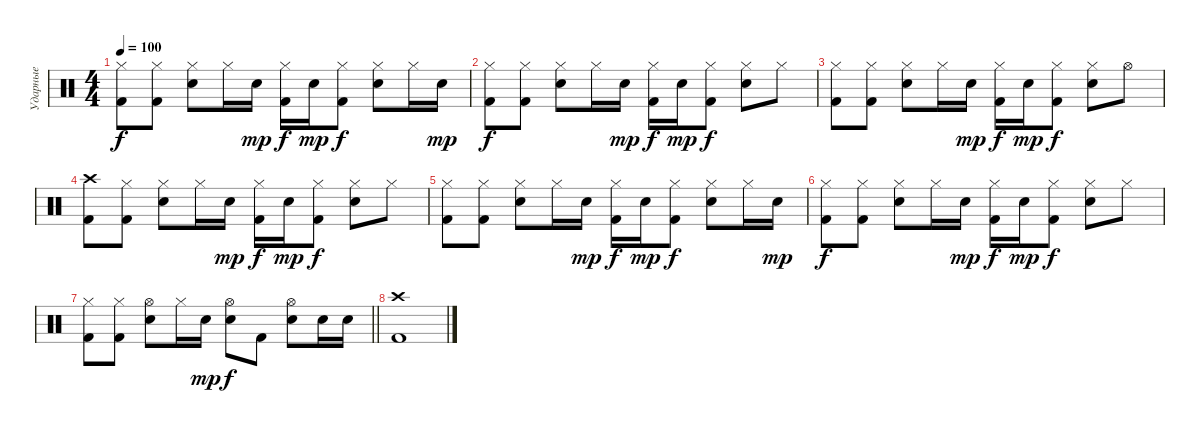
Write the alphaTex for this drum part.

\track ("Ударные" "Ударные") {instrument percussion}
\staff {score}
\articulation defaults
\ts (4 4)
\tempo 100
\clef neutral
\ks c
("Hi-Hat (closed)" "Kick (hit) 2").8{dy f} ("Hi-Hat (closed)" "Kick (hit) 2").8 ("Hi-Hat (closed)" "Electric Snare (hit)").8 "Hi-Hat (closed)".16 "Electric Snare (hit)".16{dy mp} ("Hi-Hat (closed)" "Kick (hit) 2").16{dy f} "Electric Snare (hit)".16{dy mp} ("Hi-Hat (closed)" "Kick (hit) 2").8{dy f} ("Hi-Hat (closed)" "Electric Snare (hit)").8 "Hi-Hat (closed)".16 "Electric Snare (hit)".16{dy mp} |
("Hi-Hat (closed)" "Kick (hit) 2").8{dy f} ("Hi-Hat (closed)" "Kick (hit) 2").8 ("Hi-Hat (closed)" "Electric Snare (hit)").8 "Hi-Hat (closed)".16 "Electric Snare (hit)".16{dy mp} ("Hi-Hat (closed)" "Kick (hit) 2").16{dy f} "Electric Snare (hit)".16{dy mp} ("Hi-Hat (closed)" "Kick (hit) 2").8{dy f} ("Hi-Hat (closed)" "Electric Snare (hit)").8 "Hi-Hat (closed)".8 |
("Hi-Hat (closed)" "Kick (hit) 2").8 ("Hi-Hat (closed)" "Kick (hit) 2").8 ("Hi-Hat (closed)" "Electric Snare (hit)").8 "Hi-Hat (closed)".16 "Electric Snare (hit)".16{dy mp} ("Hi-Hat (closed)" "Kick (hit) 2").16{dy f} "Electric Snare (hit)".16{dy mp} ("Hi-Hat (closed)" "Kick (hit) 2").8{dy f} ("Hi-Hat (closed)" "Electric Snare (hit)").8 "Hi-Hat (open)".8 |
("Crash high (hit)" "Kick (hit) 2").8 ("Hi-Hat (closed)" "Kick (hit) 2").8 ("Hi-Hat (closed)" "Electric Snare (hit)").8 "Hi-Hat (closed)".16 "Electric Snare (hit)".16{dy mp} ("Hi-Hat (closed)" "Kick (hit) 2").16{dy f} "Electric Snare (hit)".16{dy mp} ("Hi-Hat (closed)" "Kick (hit) 2").8{dy f} ("Hi-Hat (closed)" "Electric Snare (hit)").8 "Hi-Hat (closed)".8 |
("Hi-Hat (closed)" "Kick (hit) 2").8 ("Hi-Hat (closed)" "Kick (hit) 2").8 ("Hi-Hat (closed)" "Electric Snare (hit)").8 "Hi-Hat (closed)".16 "Electric Snare (hit)".16{dy mp} ("Hi-Hat (closed)" "Kick (hit) 2").16{dy f} "Electric Snare (hit)".16{dy mp} ("Hi-Hat (closed)" "Kick (hit) 2").8{dy f} ("Hi-Hat (closed)" "Electric Snare (hit)").8 "Hi-Hat (closed)".16 "Electric Snare (hit)".16{dy mp} |
("Hi-Hat (closed)" "Kick (hit) 2").8{dy f} ("Hi-Hat (closed)" "Kick (hit) 2").8 ("Hi-Hat (closed)" "Electric Snare (hit)").8 "Hi-Hat (closed)".16 "Electric Snare (hit)".16{dy mp} ("Hi-Hat (closed)" "Kick (hit) 2").16{dy f} "Electric Snare (hit)".16{dy mp} ("Hi-Hat (closed)" "Kick (hit) 2").8{dy f} ("Hi-Hat (closed)" "Electric Snare (hit)").8 "Hi-Hat (closed)".8 |
\barLineRight lightlight
("Hi-Hat (closed)" "Kick (hit) 2").8 ("Hi-Hat (closed)" "Kick (hit) 2").8 ("Hi-Hat (open)" "Electric Snare (hit)").8 "Hi-Hat (closed)".16 "Electric Snare (hit)".16{dy mp} ("Hi-Hat (open)" "Electric Snare (hit)").8{dy f} "Kick (hit) 2".8 ("Hi-Hat (open)" "Electric Snare (hit)").8 "Electric Snare (hit)".16 "Electric Snare (hit)".16 |
("Crash high (hit)" "Kick (hit) 2").1
